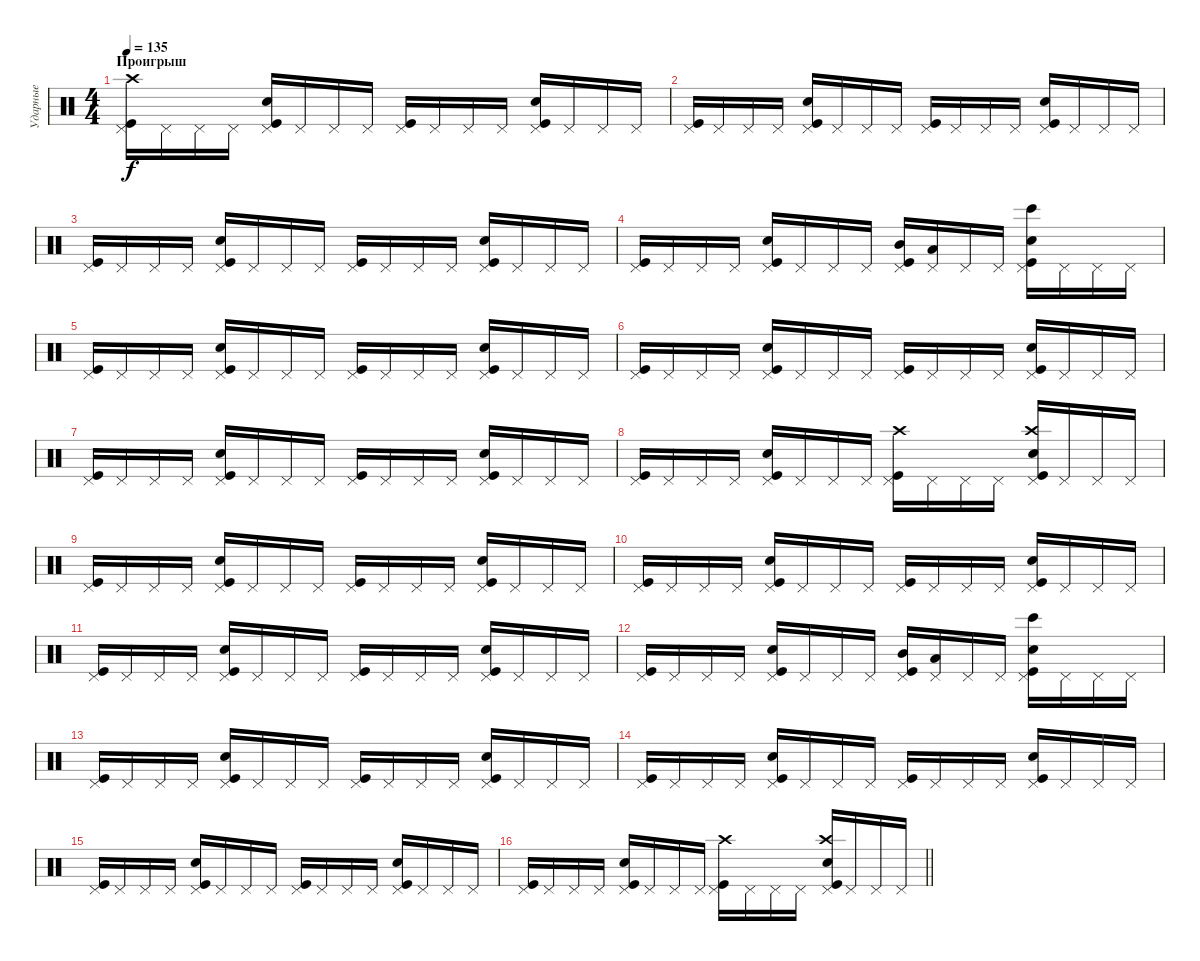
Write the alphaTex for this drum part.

\track ("Ударные" "Ударные") {instrument percussion}
\staff {score}
\articulation defaults
\ts (4 4)
\section ("" "Проигрыш")
\tempo 135
\clef neutral
\ks c
("Kick (hit)" "Pedal Hi-Hat (hit)" "Crash high (hit)").16{dy f} "Pedal Hi-Hat (hit)".16 "Pedal Hi-Hat (hit)".16 "Pedal Hi-Hat (hit)".16 ("Kick (hit)" "Pedal Hi-Hat (hit)" "Snare (hit) 2").16 "Pedal Hi-Hat (hit)".16 "Pedal Hi-Hat (hit)".16 "Pedal Hi-Hat (hit)".16 ("Kick (hit)" "Pedal Hi-Hat (hit)").16 "Pedal Hi-Hat (hit)".16 "Pedal Hi-Hat (hit)".16 "Pedal Hi-Hat (hit)".16 ("Kick (hit)" "Pedal Hi-Hat (hit)" "Snare (hit) 2").16 "Pedal Hi-Hat (hit)".16 "Pedal Hi-Hat (hit)".16 "Pedal Hi-Hat (hit)".16 |
("Kick (hit)" "Pedal Hi-Hat (hit)").16 "Pedal Hi-Hat (hit)".16 "Pedal Hi-Hat (hit)".16 "Pedal Hi-Hat (hit)".16 ("Kick (hit)" "Pedal Hi-Hat (hit)" "Snare (hit) 2").16 "Pedal Hi-Hat (hit)".16 "Pedal Hi-Hat (hit)".16 "Pedal Hi-Hat (hit)".16 ("Kick (hit)" "Pedal Hi-Hat (hit)").16 "Pedal Hi-Hat (hit)".16 "Pedal Hi-Hat (hit)".16 "Pedal Hi-Hat (hit)".16 ("Kick (hit)" "Pedal Hi-Hat (hit)" "Snare (hit) 2").16 "Pedal Hi-Hat (hit)".16 "Pedal Hi-Hat (hit)".16 "Pedal Hi-Hat (hit)".16 |
("Kick (hit)" "Pedal Hi-Hat (hit)").16 "Pedal Hi-Hat (hit)".16 "Pedal Hi-Hat (hit)".16 "Pedal Hi-Hat (hit)".16 ("Kick (hit)" "Pedal Hi-Hat (hit)" "Snare (hit) 2").16 "Pedal Hi-Hat (hit)".16 "Pedal Hi-Hat (hit)".16 "Pedal Hi-Hat (hit)".16 ("Kick (hit)" "Pedal Hi-Hat (hit)").16 "Pedal Hi-Hat (hit)".16 "Pedal Hi-Hat (hit)".16 "Pedal Hi-Hat (hit)".16 ("Kick (hit)" "Pedal Hi-Hat (hit)" "Snare (hit) 2").16 "Pedal Hi-Hat (hit)".16 "Pedal Hi-Hat (hit)".16 "Pedal Hi-Hat (hit)".16 |
("Kick (hit)" "Pedal Hi-Hat (hit)").16 "Pedal Hi-Hat (hit)".16 "Pedal Hi-Hat (hit)".16 "Pedal Hi-Hat (hit)".16 ("Kick (hit)" "Pedal Hi-Hat (hit)" "Snare (hit) 2").16 "Pedal Hi-Hat (hit)".16 "Pedal Hi-Hat (hit)".16 "Pedal Hi-Hat (hit)".16 ("Kick (hit)" "Pedal Hi-Hat (hit)" "Mid Tom (hit)").16 ("Pedal Hi-Hat (hit)" "Low Tom (hit)").16 "Pedal Hi-Hat (hit)".16 "Pedal Hi-Hat (hit)".16 ("Kick (hit)" "Pedal Hi-Hat (hit)" "Snare (hit) 2" "Bongo High (hit)").16 "Pedal Hi-Hat (hit)".16 "Pedal Hi-Hat (hit)".16 "Pedal Hi-Hat (hit)".16 |
("Kick (hit)" "Pedal Hi-Hat (hit)").16 "Pedal Hi-Hat (hit)".16 "Pedal Hi-Hat (hit)".16 "Pedal Hi-Hat (hit)".16 ("Kick (hit)" "Pedal Hi-Hat (hit)" "Snare (hit) 2").16 "Pedal Hi-Hat (hit)".16 "Pedal Hi-Hat (hit)".16 "Pedal Hi-Hat (hit)".16 ("Kick (hit)" "Pedal Hi-Hat (hit)").16 "Pedal Hi-Hat (hit)".16 "Pedal Hi-Hat (hit)".16 "Pedal Hi-Hat (hit)".16 ("Kick (hit)" "Pedal Hi-Hat (hit)" "Snare (hit) 2").16 "Pedal Hi-Hat (hit)".16 "Pedal Hi-Hat (hit)".16 "Pedal Hi-Hat (hit)".16 |
("Kick (hit)" "Pedal Hi-Hat (hit)").16 "Pedal Hi-Hat (hit)".16 "Pedal Hi-Hat (hit)".16 "Pedal Hi-Hat (hit)".16 ("Kick (hit)" "Pedal Hi-Hat (hit)" "Snare (hit) 2").16 "Pedal Hi-Hat (hit)".16 "Pedal Hi-Hat (hit)".16 "Pedal Hi-Hat (hit)".16 ("Kick (hit)" "Pedal Hi-Hat (hit)").16 "Pedal Hi-Hat (hit)".16 "Pedal Hi-Hat (hit)".16 "Pedal Hi-Hat (hit)".16 ("Kick (hit)" "Pedal Hi-Hat (hit)" "Snare (hit) 2").16 "Pedal Hi-Hat (hit)".16 "Pedal Hi-Hat (hit)".16 "Pedal Hi-Hat (hit)".16 |
("Kick (hit)" "Pedal Hi-Hat (hit)").16 "Pedal Hi-Hat (hit)".16 "Pedal Hi-Hat (hit)".16 "Pedal Hi-Hat (hit)".16 ("Kick (hit)" "Pedal Hi-Hat (hit)" "Snare (hit) 2").16 "Pedal Hi-Hat (hit)".16 "Pedal Hi-Hat (hit)".16 "Pedal Hi-Hat (hit)".16 ("Kick (hit)" "Pedal Hi-Hat (hit)").16 "Pedal Hi-Hat (hit)".16 "Pedal Hi-Hat (hit)".16 "Pedal Hi-Hat (hit)".16 ("Kick (hit)" "Pedal Hi-Hat (hit)" "Snare (hit) 2").16 "Pedal Hi-Hat (hit)".16 "Pedal Hi-Hat (hit)".16 "Pedal Hi-Hat (hit)".16 |
("Kick (hit)" "Pedal Hi-Hat (hit)").16 "Pedal Hi-Hat (hit)".16 "Pedal Hi-Hat (hit)".16 "Pedal Hi-Hat (hit)".16 ("Kick (hit)" "Pedal Hi-Hat (hit)" "Snare (hit) 2").16 "Pedal Hi-Hat (hit)".16 "Pedal Hi-Hat (hit)".16 "Pedal Hi-Hat (hit)".16 ("Kick (hit)" "Pedal Hi-Hat (hit)" "Crash high (hit)").16 "Pedal Hi-Hat (hit)".16 "Pedal Hi-Hat (hit)".16 "Pedal Hi-Hat (hit)".16 ("Kick (hit)" "Pedal Hi-Hat (hit)" "Snare (hit) 2" "Crash high (hit)").16 "Pedal Hi-Hat (hit)".16 "Pedal Hi-Hat (hit)".16 "Pedal Hi-Hat (hit)".16 |
("Kick (hit)" "Pedal Hi-Hat (hit)").16 "Pedal Hi-Hat (hit)".16 "Pedal Hi-Hat (hit)".16 "Pedal Hi-Hat (hit)".16 ("Kick (hit)" "Pedal Hi-Hat (hit)" "Snare (hit) 2").16 "Pedal Hi-Hat (hit)".16 "Pedal Hi-Hat (hit)".16 "Pedal Hi-Hat (hit)".16 ("Kick (hit)" "Pedal Hi-Hat (hit)").16 "Pedal Hi-Hat (hit)".16 "Pedal Hi-Hat (hit)".16 "Pedal Hi-Hat (hit)".16 ("Kick (hit)" "Pedal Hi-Hat (hit)" "Snare (hit) 2").16 "Pedal Hi-Hat (hit)".16 "Pedal Hi-Hat (hit)".16 "Pedal Hi-Hat (hit)".16 |
("Kick (hit)" "Pedal Hi-Hat (hit)").16 "Pedal Hi-Hat (hit)".16 "Pedal Hi-Hat (hit)".16 "Pedal Hi-Hat (hit)".16 ("Kick (hit)" "Pedal Hi-Hat (hit)" "Snare (hit) 2").16 "Pedal Hi-Hat (hit)".16 "Pedal Hi-Hat (hit)".16 "Pedal Hi-Hat (hit)".16 ("Kick (hit)" "Pedal Hi-Hat (hit)").16 "Pedal Hi-Hat (hit)".16 "Pedal Hi-Hat (hit)".16 "Pedal Hi-Hat (hit)".16 ("Kick (hit)" "Pedal Hi-Hat (hit)" "Snare (hit) 2").16 "Pedal Hi-Hat (hit)".16 "Pedal Hi-Hat (hit)".16 "Pedal Hi-Hat (hit)".16 |
("Kick (hit)" "Pedal Hi-Hat (hit)").16 "Pedal Hi-Hat (hit)".16 "Pedal Hi-Hat (hit)".16 "Pedal Hi-Hat (hit)".16 ("Kick (hit)" "Pedal Hi-Hat (hit)" "Snare (hit) 2").16 "Pedal Hi-Hat (hit)".16 "Pedal Hi-Hat (hit)".16 "Pedal Hi-Hat (hit)".16 ("Kick (hit)" "Pedal Hi-Hat (hit)").16 "Pedal Hi-Hat (hit)".16 "Pedal Hi-Hat (hit)".16 "Pedal Hi-Hat (hit)".16 ("Kick (hit)" "Pedal Hi-Hat (hit)" "Snare (hit) 2").16 "Pedal Hi-Hat (hit)".16 "Pedal Hi-Hat (hit)".16 "Pedal Hi-Hat (hit)".16 |
("Kick (hit)" "Pedal Hi-Hat (hit)").16 "Pedal Hi-Hat (hit)".16 "Pedal Hi-Hat (hit)".16 "Pedal Hi-Hat (hit)".16 ("Kick (hit)" "Pedal Hi-Hat (hit)" "Snare (hit) 2").16 "Pedal Hi-Hat (hit)".16 "Pedal Hi-Hat (hit)".16 "Pedal Hi-Hat (hit)".16 ("Kick (hit)" "Pedal Hi-Hat (hit)" "Mid Tom (hit)").16 ("Pedal Hi-Hat (hit)" "Low Tom (hit)").16 "Pedal Hi-Hat (hit)".16 "Pedal Hi-Hat (hit)".16 ("Kick (hit)" "Pedal Hi-Hat (hit)" "Snare (hit) 2" "Bongo High (hit)").16 "Pedal Hi-Hat (hit)".16 "Pedal Hi-Hat (hit)".16 "Pedal Hi-Hat (hit)".16 |
("Kick (hit)" "Pedal Hi-Hat (hit)").16 "Pedal Hi-Hat (hit)".16 "Pedal Hi-Hat (hit)".16 "Pedal Hi-Hat (hit)".16 ("Kick (hit)" "Pedal Hi-Hat (hit)" "Snare (hit) 2").16 "Pedal Hi-Hat (hit)".16 "Pedal Hi-Hat (hit)".16 "Pedal Hi-Hat (hit)".16 ("Kick (hit)" "Pedal Hi-Hat (hit)").16 "Pedal Hi-Hat (hit)".16 "Pedal Hi-Hat (hit)".16 "Pedal Hi-Hat (hit)".16 ("Kick (hit)" "Pedal Hi-Hat (hit)" "Snare (hit) 2").16 "Pedal Hi-Hat (hit)".16 "Pedal Hi-Hat (hit)".16 "Pedal Hi-Hat (hit)".16 |
("Kick (hit)" "Pedal Hi-Hat (hit)").16 "Pedal Hi-Hat (hit)".16 "Pedal Hi-Hat (hit)".16 "Pedal Hi-Hat (hit)".16 ("Kick (hit)" "Pedal Hi-Hat (hit)" "Snare (hit) 2").16 "Pedal Hi-Hat (hit)".16 "Pedal Hi-Hat (hit)".16 "Pedal Hi-Hat (hit)".16 ("Kick (hit)" "Pedal Hi-Hat (hit)").16 "Pedal Hi-Hat (hit)".16 "Pedal Hi-Hat (hit)".16 "Pedal Hi-Hat (hit)".16 ("Kick (hit)" "Pedal Hi-Hat (hit)" "Snare (hit) 2").16 "Pedal Hi-Hat (hit)".16 "Pedal Hi-Hat (hit)".16 "Pedal Hi-Hat (hit)".16 |
("Kick (hit)" "Pedal Hi-Hat (hit)").16 "Pedal Hi-Hat (hit)".16 "Pedal Hi-Hat (hit)".16 "Pedal Hi-Hat (hit)".16 ("Kick (hit)" "Pedal Hi-Hat (hit)" "Snare (hit) 2").16 "Pedal Hi-Hat (hit)".16 "Pedal Hi-Hat (hit)".16 "Pedal Hi-Hat (hit)".16 ("Kick (hit)" "Pedal Hi-Hat (hit)").16 "Pedal Hi-Hat (hit)".16 "Pedal Hi-Hat (hit)".16 "Pedal Hi-Hat (hit)".16 ("Kick (hit)" "Pedal Hi-Hat (hit)" "Snare (hit) 2").16 "Pedal Hi-Hat (hit)".16 "Pedal Hi-Hat (hit)".16 "Pedal Hi-Hat (hit)".16 |
\barLineRight lightlight
("Kick (hit)" "Pedal Hi-Hat (hit)").16 "Pedal Hi-Hat (hit)".16 "Pedal Hi-Hat (hit)".16 "Pedal Hi-Hat (hit)".16 ("Kick (hit)" "Pedal Hi-Hat (hit)" "Snare (hit) 2").16 "Pedal Hi-Hat (hit)".16 "Pedal Hi-Hat (hit)".16 "Pedal Hi-Hat (hit)".16 ("Kick (hit)" "Pedal Hi-Hat (hit)" "Crash high (hit)").16 "Pedal Hi-Hat (hit)".16 "Pedal Hi-Hat (hit)".16 "Pedal Hi-Hat (hit)".16 ("Kick (hit)" "Pedal Hi-Hat (hit)" "Snare (hit) 2" "Crash high (hit)").16 "Pedal Hi-Hat (hit)".16 "Pedal Hi-Hat (hit)".16 "Pedal Hi-Hat (hit)".16
